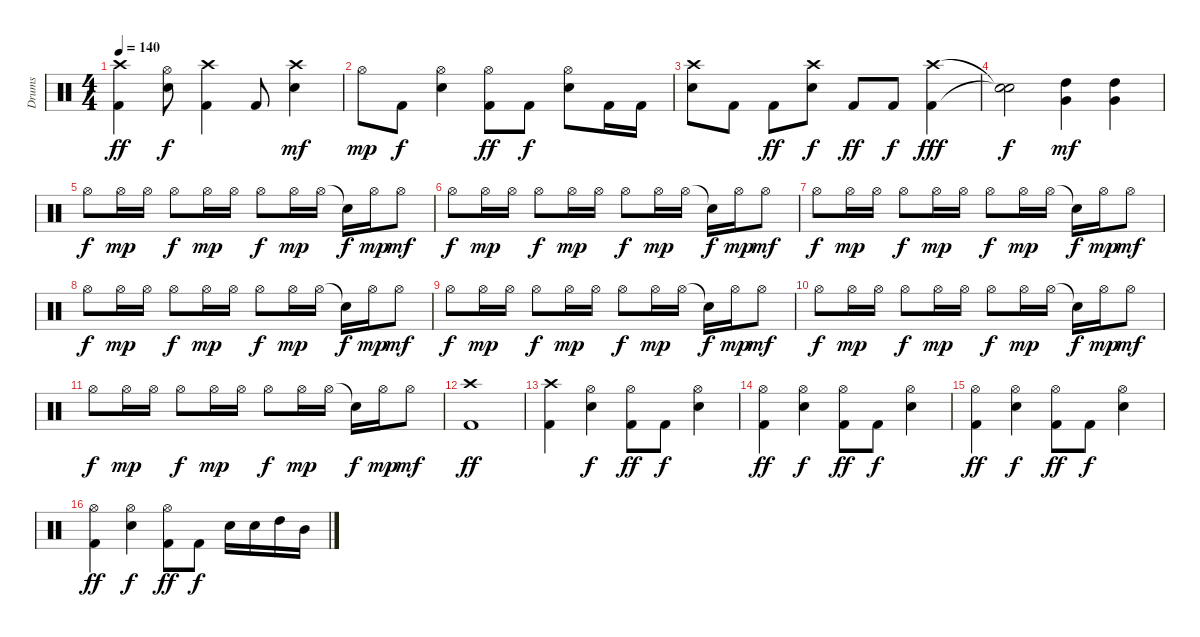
\track ("Drums" "Drums") {instrument percussion}
\staff {score}
\articulation defaults
\ts (4 4)
\tempo 140
\clef neutral
\ks c
("Crash high (hit)" "Kick (hit) 2").4{dy ff} ("Hi-Hat (open)" "Electric Snare (hit)").8{dy f} ("Crash high (hit)" "Kick (hit) 2").4 "Kick (hit) 2".8 ("Crash high (hit)" "Electric Snare (hit)").4{dy mf} |
"Hi-Hat (open)".8{dy mp} "Kick (hit) 2".8{dy f} ("Hi-Hat (open)" "Electric Snare (hit)").4 ("Hi-Hat (open)" "Kick (hit) 2").8{dy ff} "Kick (hit) 2".8{dy f} ("Hi-Hat (open)" "Electric Snare (hit)").8 "Kick (hit) 2".16 "Kick (hit) 2".16 |
("Crash high (hit)" "Electric Snare (hit)").8 "Kick (hit) 2".8 "Kick (hit) 2".8{dy ff} ("Crash high (hit)" "Electric Snare (hit)").8{dy f} "Kick (hit) 2".8{dy ff} "Kick (hit) 2".8{dy f} ("Crash high (hit)" "Kick (hit) 2").4{dy fff} |
("Snare (hit)"{t} "Snare (hit)"{t}).2{dy f} ("Very Low Tom (hit)" "High Tom (hit)").4{dy mf} ("Very Low Tom (hit)" "High Tom (hit)").4 |
"Hi-Hat (open)".8{dy f} "Hi-Hat (open)".16{dy mp} "Hi-Hat (open)".16 "Hi-Hat (open)".8{dy f} "Hi-Hat (open)".16{dy mp} "Hi-Hat (open)".16 "Hi-Hat (open)".8{dy f} "Hi-Hat (open)".16{dy mp} "Hi-Hat (open)".16 "Snare (hit)"{t}.16{dy f} "Hi-Hat (open)".16{dy mp} "Hi-Hat (open)".8{dy mf} |
"Hi-Hat (open)".8{dy f} "Hi-Hat (open)".16{dy mp} "Hi-Hat (open)".16 "Hi-Hat (open)".8{dy f} "Hi-Hat (open)".16{dy mp} "Hi-Hat (open)".16 "Hi-Hat (open)".8{dy f} "Hi-Hat (open)".16{dy mp} "Hi-Hat (open)".16 "Snare (hit)"{t}.16{dy f} "Hi-Hat (open)".16{dy mp} "Hi-Hat (open)".8{dy mf} |
"Hi-Hat (open)".8{dy f} "Hi-Hat (open)".16{dy mp} "Hi-Hat (open)".16 "Hi-Hat (open)".8{dy f} "Hi-Hat (open)".16{dy mp} "Hi-Hat (open)".16 "Hi-Hat (open)".8{dy f} "Hi-Hat (open)".16{dy mp} "Hi-Hat (open)".16 "Snare (hit)"{t}.16{dy f} "Hi-Hat (open)".16{dy mp} "Hi-Hat (open)".8{dy mf} |
"Hi-Hat (open)".8{dy f} "Hi-Hat (open)".16{dy mp} "Hi-Hat (open)".16 "Hi-Hat (open)".8{dy f} "Hi-Hat (open)".16{dy mp} "Hi-Hat (open)".16 "Hi-Hat (open)".8{dy f} "Hi-Hat (open)".16{dy mp} "Hi-Hat (open)".16 "Snare (hit)"{t}.16{dy f} "Hi-Hat (open)".16{dy mp} "Hi-Hat (open)".8{dy mf} |
"Hi-Hat (open)".8{dy f} "Hi-Hat (open)".16{dy mp} "Hi-Hat (open)".16 "Hi-Hat (open)".8{dy f} "Hi-Hat (open)".16{dy mp} "Hi-Hat (open)".16 "Hi-Hat (open)".8{dy f} "Hi-Hat (open)".16{dy mp} "Hi-Hat (open)".16 "Snare (hit)"{t}.16{dy f} "Hi-Hat (open)".16{dy mp} "Hi-Hat (open)".8{dy mf} |
"Hi-Hat (open)".8{dy f} "Hi-Hat (open)".16{dy mp} "Hi-Hat (open)".16 "Hi-Hat (open)".8{dy f} "Hi-Hat (open)".16{dy mp} "Hi-Hat (open)".16 "Hi-Hat (open)".8{dy f} "Hi-Hat (open)".16{dy mp} "Hi-Hat (open)".16 "Snare (hit)"{t}.16{dy f} "Hi-Hat (open)".16{dy mp} "Hi-Hat (open)".8{dy mf} |
"Hi-Hat (open)".8{dy f} "Hi-Hat (open)".16{dy mp} "Hi-Hat (open)".16 "Hi-Hat (open)".8{dy f} "Hi-Hat (open)".16{dy mp} "Hi-Hat (open)".16 "Hi-Hat (open)".8{dy f} "Hi-Hat (open)".16{dy mp} "Hi-Hat (open)".16 "Snare (hit)"{t}.16{dy f} "Hi-Hat (open)".16{dy mp} "Hi-Hat (open)".8{dy mf} |
("Crash high (hit)" "Kick (hit) 2").1{dy ff} |
("Crash high (hit)" "Kick (hit) 2").4 ("Hi-Hat (open)" "Electric Snare (hit)").4{dy f} ("Hi-Hat (open)" "Kick (hit) 2").8{dy ff} "Kick (hit) 2".8{dy f} ("Hi-Hat (open)" "Electric Snare (hit)").4 |
("Hi-Hat (open)" "Kick (hit) 2").4{dy ff} ("Hi-Hat (open)" "Electric Snare (hit)").4{dy f} ("Hi-Hat (open)" "Kick (hit) 2").8{dy ff} "Kick (hit) 2".8{dy f} ("Hi-Hat (open)" "Electric Snare (hit)").4 |
("Hi-Hat (open)" "Kick (hit) 2").4{dy ff} ("Hi-Hat (open)" "Electric Snare (hit)").4{dy f} ("Hi-Hat (open)" "Kick (hit) 2").8{dy ff} "Kick (hit) 2".8{dy f} ("Hi-Hat (open)" "Electric Snare (hit)").4 |
("Hi-Hat (open)" "Kick (hit) 2").4{dy ff} ("Hi-Hat (open)" "Electric Snare (hit)").4{dy f} ("Hi-Hat (open)" "Kick (hit) 2").8{dy ff} "Kick (hit) 2".8{dy f} "Electric Snare (hit)".16 "Electric Snare (hit)".16 "High Tom (hit)".16 "Mid Tom (hit)".16
